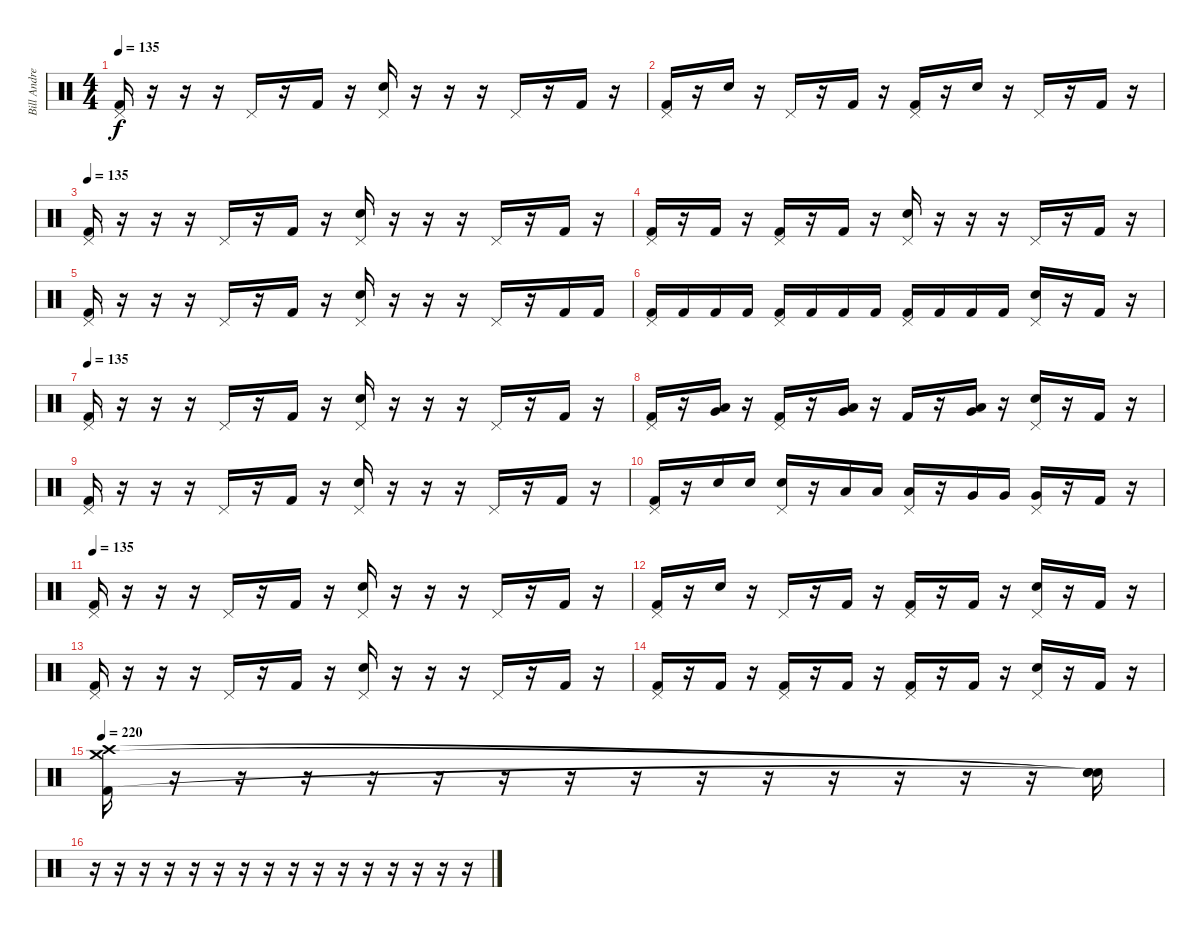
\track ("Bill Andrews" "Bill Andre") {instrument percussion}
\staff {score}
\articulation defaults
\ts (4 4)
\tempo 135
\clef neutral
\ks c
("Pedal Hi-Hat (hit)" "Kick (hit) 2").16{dy f} r.16 r.16 r.16 "Pedal Hi-Hat (hit)".16 r.16 "Kick (hit) 2".16 r.16 ("Pedal Hi-Hat (hit)" "Snare (hit) 2").16 r.16 r.16 r.16 "Pedal Hi-Hat (hit)".16 r.16 "Kick (hit) 2".16 r.16 |
("Pedal Hi-Hat (hit)" "Kick (hit) 2").16 r.16 "Snare (hit) 2".16 r.16 "Pedal Hi-Hat (hit)".16 r.16 "Kick (hit) 2".16 r.16 ("Pedal Hi-Hat (hit)" "Kick (hit) 2").16 r.16 "Snare (hit) 2".16 r.16 "Pedal Hi-Hat (hit)".16 r.16 "Kick (hit) 2".16 r.16 |
\tempo 135
("Pedal Hi-Hat (hit)" "Kick (hit) 2").16 r.16 r.16 r.16 "Pedal Hi-Hat (hit)".16 r.16 "Kick (hit) 2".16 r.16 ("Pedal Hi-Hat (hit)" "Snare (hit) 2").16 r.16 r.16 r.16 "Pedal Hi-Hat (hit)".16 r.16 "Kick (hit) 2".16 r.16 |
("Pedal Hi-Hat (hit)" "Kick (hit) 2").16 r.16 "Kick (hit) 2".16 r.16 ("Pedal Hi-Hat (hit)" "Kick (hit) 2").16 r.16 "Kick (hit) 2".16 r.16 ("Pedal Hi-Hat (hit)" "Snare (hit) 2").16 r.16 r.16 r.16 "Pedal Hi-Hat (hit)".16 r.16 "Kick (hit) 2".16 r.16 |
("Pedal Hi-Hat (hit)" "Kick (hit) 2").16 r.16 r.16 r.16 "Pedal Hi-Hat (hit)".16 r.16 "Kick (hit) 2".16 r.16 ("Pedal Hi-Hat (hit)" "Snare (hit) 2").16 r.16 r.16 r.16 "Pedal Hi-Hat (hit)".16 r.16 "Kick (hit) 2".16 "Kick (hit) 2".16 |
("Pedal Hi-Hat (hit)" "Kick (hit) 2").16 "Kick (hit) 2".16 "Kick (hit) 2".16 "Kick (hit) 2".16 ("Pedal Hi-Hat (hit)" "Kick (hit) 2").16 "Kick (hit) 2".16 "Kick (hit) 2".16 "Kick (hit) 2".16 ("Pedal Hi-Hat (hit)" "Kick (hit) 2").16 "Kick (hit) 2".16 "Kick (hit) 2".16 "Kick (hit) 2".16 ("Pedal Hi-Hat (hit)" "Snare (hit) 2").16 r.16 "Kick (hit) 2".16 r.16 |
\tempo 135
("Pedal Hi-Hat (hit)" "Kick (hit) 2").16 r.16 r.16 r.16 "Pedal Hi-Hat (hit)".16 r.16 "Kick (hit) 2".16 r.16 ("Pedal Hi-Hat (hit)" "Snare (hit) 2").16 r.16 r.16 r.16 "Pedal Hi-Hat (hit)".16 r.16 "Kick (hit) 2".16 r.16 |
("Pedal Hi-Hat (hit)" "Kick (hit) 2").16 r.16 ("Low Tom (hit)" "Very Low Tom (hit)").16 r.16 ("Pedal Hi-Hat (hit)" "Kick (hit) 2").16 r.16 ("Very Low Tom (hit)" "Low Floor Tom (hit)").16 r.16 "Kick (hit) 2".16 r.16 ("Very Low Tom (hit)" "Low Floor Tom (hit)").16 r.16 ("Pedal Hi-Hat (hit)" "Snare (hit) 2").16 r.16 "Kick (hit) 2".16 r.16 |
("Pedal Hi-Hat (hit)" "Kick (hit) 2").16 r.16 r.16 r.16 "Pedal Hi-Hat (hit)".16 r.16 "Kick (hit) 2".16 r.16 ("Pedal Hi-Hat (hit)" "Snare (hit) 2").16 r.16 r.16 r.16 "Pedal Hi-Hat (hit)".16 r.16 "Kick (hit) 2".16 r.16 |
("Pedal Hi-Hat (hit)" "Kick (hit) 2").16 r.16 "Snare (hit) 2".16 "Snare (hit) 2".16 ("Pedal Hi-Hat (hit)" "Snare (hit) 2").16 r.16 "Low Tom (hit)".16 "Low Tom (hit)".16 ("Pedal Hi-Hat (hit)" "Low Tom (hit)").16 r.16 "Very Low Tom (hit)".16 "Very Low Tom (hit)".16 ("Pedal Hi-Hat (hit)" "Very Low Tom (hit)").16 r.16 "Kick (hit) 2".16 r.16 |
\tempo 135
("Pedal Hi-Hat (hit)" "Kick (hit) 2").16 r.16 r.16 r.16 "Pedal Hi-Hat (hit)".16 r.16 "Kick (hit) 2".16 r.16 ("Pedal Hi-Hat (hit)" "Snare (hit) 2").16 r.16 r.16 r.16 "Pedal Hi-Hat (hit)".16 r.16 "Kick (hit) 2".16 r.16 |
("Pedal Hi-Hat (hit)" "Kick (hit) 2").16 r.16 "Snare (hit) 2".16 r.16 "Pedal Hi-Hat (hit)".16 r.16 "Kick (hit) 2".16 r.16 ("Pedal Hi-Hat (hit)" "Kick (hit) 2").16 r.16 "Kick (hit) 2".16 r.16 ("Pedal Hi-Hat (hit)" "Snare (hit) 2").16 r.16 "Kick (hit) 2".16 r.16 |
("Pedal Hi-Hat (hit)" "Kick (hit) 2").16 r.16 r.16 r.16 "Pedal Hi-Hat (hit)".16 r.16 "Kick (hit) 2".16 r.16 ("Pedal Hi-Hat (hit)" "Snare (hit) 2").16 r.16 r.16 r.16 "Pedal Hi-Hat (hit)".16 r.16 "Kick (hit) 2".16 r.16 |
("Pedal Hi-Hat (hit)" "Kick (hit) 2").16 r.16 "Kick (hit) 2".16 r.16 ("Pedal Hi-Hat (hit)" "Kick (hit) 2").16 r.16 "Kick (hit) 2".16 r.16 ("Pedal Hi-Hat (hit)" "Kick (hit) 2").16 r.16 "Kick (hit) 2".16 r.16 ("Pedal Hi-Hat (hit)" "Snare (hit) 2").16 r.16 "Kick (hit) 2".16 r.16 |
\tempo 220
("Kick (hit) 2" "Crash high (hit)" "Crash medium (hit)").16 r.16 r.16 r.16 r.16 r.16 r.16 r.16 r.16 r.16 r.16 r.16 r.16 r.16 r.16 ("Snare (hit)"{t} "Snare (hit)"{t} "Snare (hit)"{t}).16 |
r.16 r.16 r.16 r.16 r.16 r.16 r.16 r.16 r.16 r.16 r.16 r.16 r.16 r.16 r.16 r.16
